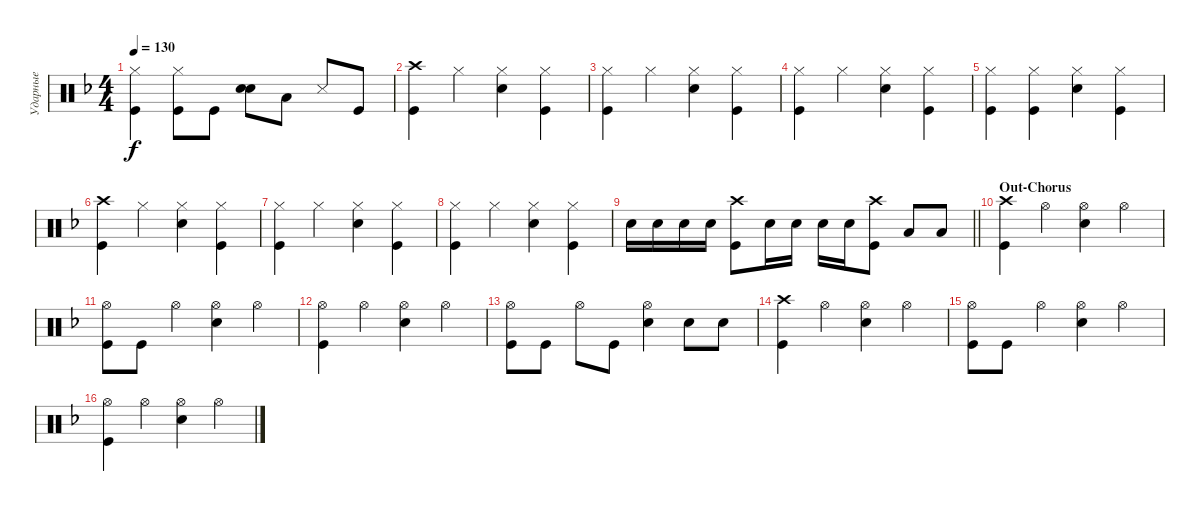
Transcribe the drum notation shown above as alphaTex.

\track ("Ударные" "Ударные") {instrument percussion}
\staff {score}
\articulation defaults
\ts (4 4)
\tempo 130
\clef neutral
\ks dminor
("Hi-Hat (closed)" "Kick (hit)").4{dy f} ("Hi-Hat (closed)" "Kick (hit)").8 "Kick (hit)".8 ("Snare (hit) 2" "Snare (hit) 2").8{bd 240} "Low Tom (hit)".8 "Snare (side stick) 3".8 "Kick (hit)".8 |
("Kick (hit)" "Crash high (hit)").4 "Hi-Hat (closed)".4 ("Hi-Hat (closed)" "Snare (hit) 2").4 ("Hi-Hat (closed)" "Kick (hit)").4 |
("Kick (hit)" "Hi-Hat (closed)").4 "Hi-Hat (closed)".4 ("Hi-Hat (closed)" "Snare (hit) 2").4 ("Hi-Hat (closed)" "Kick (hit)").4 |
("Hi-Hat (closed)" "Kick (hit)").4 "Hi-Hat (closed)".4 ("Hi-Hat (closed)" "Snare (hit) 2").4 ("Hi-Hat (closed)" "Kick (hit)").4 |
("Hi-Hat (closed)" "Kick (hit)").4 ("Hi-Hat (closed)" "Kick (hit)").4 ("Hi-Hat (closed)" "Snare (hit) 2").4 ("Hi-Hat (closed)" "Kick (hit)").4 |
("Kick (hit)" "Crash high (hit)").4 "Hi-Hat (closed)".4 ("Hi-Hat (closed)" "Snare (hit) 2").4 ("Hi-Hat (closed)" "Kick (hit)").4 |
("Kick (hit)" "Hi-Hat (closed)").4 "Hi-Hat (closed)".4 ("Hi-Hat (closed)" "Snare (hit) 2").4 ("Hi-Hat (closed)" "Kick (hit)").4 |
("Hi-Hat (closed)" "Kick (hit)").4 "Hi-Hat (closed)".4 ("Hi-Hat (closed)" "Snare (hit) 2").4 ("Hi-Hat (closed)" "Kick (hit)").4 |
\barLineRight lightlight "Snare (hit) 2".16 "Snare (hit) 2".16 "Snare (hit) 2".16 "Snare (hit) 2".16
("Kick (hit)" "Crash high (hit)").8 "Snare (hit) 2".16 "Snare (hit) 2".16 "Snare (hit) 2".16 "Snare (hit) 2".16 ("Kick (hit)" "Crash high (hit)").8 "Low Tom (hit)".8 "Low Tom (hit)".8 |
\section ("" "Out-Chorus")
("Kick (hit)" "Crash high (hit)").4 "Hi-Hat (open)".4 ("Snare (hit) 2" "Hi-Hat (open)").4 "Hi-Hat (open)".4 |
("Hi-Hat (open)" "Kick (hit)").8 "Kick (hit)".8 "Hi-Hat (open)".4 ("Hi-Hat (open)" "Snare (hit) 2").4 "Hi-Hat (open)".4 |
("Hi-Hat (open)" "Kick (hit)").4 "Hi-Hat (open)".4 ("Hi-Hat (open)" "Snare (hit) 2").4 "Hi-Hat (open)".4 |
("Kick (hit)" "Hi-Hat (open)").8 "Kick (hit)".8 "Hi-Hat (open)".8 "Kick (hit)".8 ("Snare (hit) 2" "Hi-Hat (open)").4 "Snare (hit) 2".8 "Snare (hit) 2".8 |
("Kick (hit)" "Crash high (hit)").4 "Hi-Hat (open)".4 ("Snare (hit) 2" "Hi-Hat (open)").4 "Hi-Hat (open)".4 |
("Hi-Hat (open)" "Kick (hit)").8 "Kick (hit)".8 "Hi-Hat (open)".4 ("Hi-Hat (open)" "Snare (hit) 2").4 "Hi-Hat (open)".4 |
("Hi-Hat (open)" "Kick (hit)").4 "Hi-Hat (open)".4 ("Hi-Hat (open)" "Snare (hit) 2").4 "Hi-Hat (open)".4
